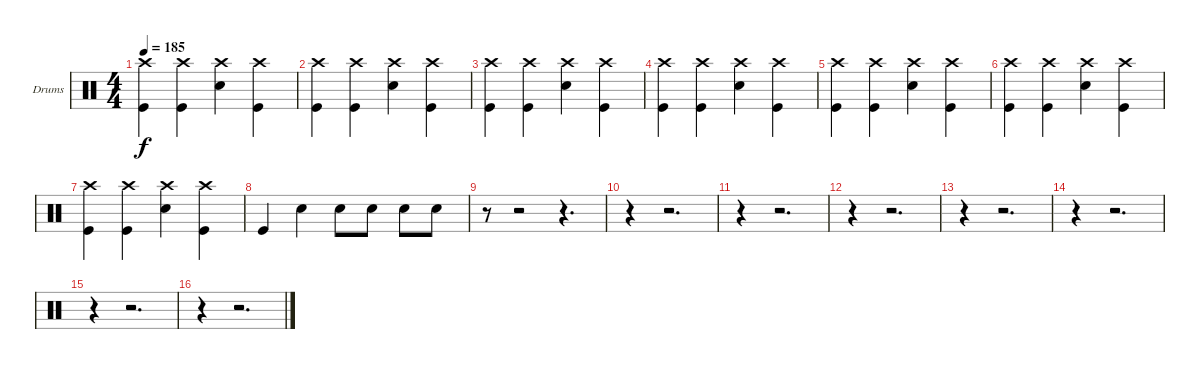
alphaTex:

\defaultSystemsLayout 4
\bracketExtendMode groupsimilarinstruments
\firstSystemTrackNameOrientation horizontal
\otherSystemsTrackNameOrientation horizontal
\track ("Chuck Comeau" "Drums") {instrument percussion}
\staff {score}
\articulation defaults
\ts (4 4)
\tempo 185
\clef neutral
\scale
0.333333
\ks c
("Crash high (hit)" "Kick (hit)").4{dy f} ("Crash high (hit)" "Kick (hit)").4 ("Crash high (hit)" "Snare (hit) 2").4 ("Crash high (hit)" "Kick (hit)").4 |
\scale
0.333333 ("Crash high (hit)" "Kick (hit)").4 ("Crash high (hit)" "Kick (hit)").4 ("Crash high (hit)" "Snare (hit) 2").4 ("Crash high (hit)" "Kick (hit)").4 |
\scale
0.333333 ("Crash high (hit)" "Kick (hit)").4 ("Crash high (hit)" "Kick (hit)").4 ("Crash high (hit)" "Snare (hit) 2").4 ("Crash high (hit)" "Kick (hit)").4 |
\scale
0.333333 ("Crash high (hit)" "Kick (hit)").4 ("Crash high (hit)" "Kick (hit)").4 ("Crash high (hit)" "Snare (hit) 2").4 ("Crash high (hit)" "Kick (hit)").4 |
\scale
0.333333 ("Crash high (hit)" "Kick (hit)").4 ("Crash high (hit)" "Kick (hit)").4 ("Crash high (hit)" "Snare (hit) 2").4 ("Crash high (hit)" "Kick (hit)").4 |
\scale
0.333333 ("Crash high (hit)" "Kick (hit)").4 ("Crash high (hit)" "Kick (hit)").4 ("Crash high (hit)" "Snare (hit) 2").4 ("Crash high (hit)" "Kick (hit)").4 |
\scale
0.333333 ("Crash high (hit)" "Kick (hit)").4 ("Crash high (hit)" "Kick (hit)").4 ("Crash high (hit)" "Snare (hit) 2").4 ("Crash high (hit)" "Kick (hit)").4 |
\scale
0.333333 "Kick (hit)".4 "Snare (hit) 2".4 "Snare (hit) 2".8 "Snare (hit) 2".8 "Snare (hit) 2".8 "Snare (hit) 2".8 |
\scale
0.333333 r.8 r.2 r.4{d} |
\scale
0.333333 r.4 r.2{d} |
\scale
0.333333 r.4 r.2{d} |
\scale
0.333333 r.4 r.2{d} |
\scale
0.333333 r.4 r.2{d} |
\scale
0.333333 r.4 r.2{d} |
\scale
0.333333 r.4 r.2{d} |
\scale
0.333333 r.4 r.2{d}
